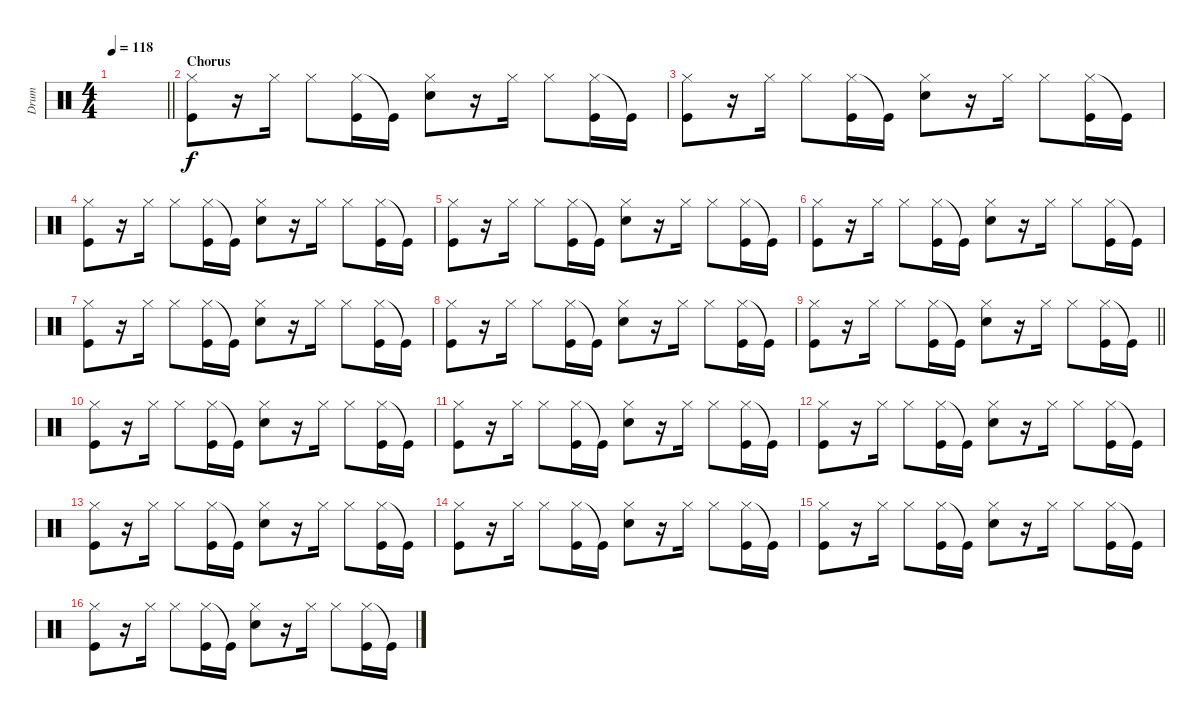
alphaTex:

\track ("Drum" "Drum") {instrument percussion}
\staff {score}
\articulation defaults
\ts (4 4)
\tempo 118
\clef neutral
\barLineRight lightlight
\ks c
|
\section ("" "Chorus")
("Hi-Hat (closed)" "Kick (hit)").8 r.16 "Hi-Hat (closed)".16 "Hi-Hat (closed)".8 ("Hi-Hat (closed)" "Kick (hit)").16 "Kick (hit)"{t}.16 ("Hi-Hat (closed)" "Hand Clap (hit)").8 r.16 "Hi-Hat (closed)".16 "Hi-Hat (closed)".8 ("Hi-Hat (closed)" "Kick (hit)").16 "Kick (hit)"{t}.16 |
("Kick (hit)" "Hi-Hat (closed)").8 r.16 "Hi-Hat (closed)".16 "Hi-Hat (closed)".8 ("Hi-Hat (closed)" "Kick (hit)").16 "Kick (hit)"{t}.16 ("Hi-Hat (closed)" "Hand Clap (hit)").8 r.16 "Hi-Hat (closed)".16 "Hi-Hat (closed)".8 ("Hi-Hat (closed)" "Kick (hit)").16 "Kick (hit)"{t}.16 |
("Hi-Hat (closed)" "Kick (hit)").8 r.16 "Hi-Hat (closed)".16 "Hi-Hat (closed)".8 ("Hi-Hat (closed)" "Kick (hit)").16 "Kick (hit)"{t}.16 ("Hi-Hat (closed)" "Hand Clap (hit)").8 r.16 "Hi-Hat (closed)".16 "Hi-Hat (closed)".8 ("Hi-Hat (closed)" "Kick (hit)").16 "Kick (hit)"{t}.16 |
("Kick (hit)" "Hi-Hat (closed)").8 r.16 "Hi-Hat (closed)".16 "Hi-Hat (closed)".8 ("Hi-Hat (closed)" "Kick (hit)").16 "Kick (hit)"{t}.16 ("Hi-Hat (closed)" "Hand Clap (hit)").8 r.16 "Hi-Hat (closed)".16 "Hi-Hat (closed)".8 ("Hi-Hat (closed)" "Kick (hit)").16 "Kick (hit)"{t}.16 |
("Hi-Hat (closed)" "Kick (hit)").8 r.16 "Hi-Hat (closed)".16 "Hi-Hat (closed)".8 ("Hi-Hat (closed)" "Kick (hit)").16 "Kick (hit)"{t}.16 ("Hi-Hat (closed)" "Hand Clap (hit)").8 r.16 "Hi-Hat (closed)".16 "Hi-Hat (closed)".8 ("Hi-Hat (closed)" "Kick (hit)").16 "Kick (hit)"{t}.16 |
("Kick (hit)" "Hi-Hat (closed)").8 r.16 "Hi-Hat (closed)".16 "Hi-Hat (closed)".8 ("Hi-Hat (closed)" "Kick (hit)").16 "Kick (hit)"{t}.16 ("Hi-Hat (closed)" "Hand Clap (hit)").8 r.16 "Hi-Hat (closed)".16 "Hi-Hat (closed)".8 ("Hi-Hat (closed)" "Kick (hit)").16 "Kick (hit)"{t}.16 |
("Hi-Hat (closed)" "Kick (hit)").8 r.16 "Hi-Hat (closed)".16 "Hi-Hat (closed)".8 ("Hi-Hat (closed)" "Kick (hit)").16 "Kick (hit)"{t}.16 ("Hi-Hat (closed)" "Hand Clap (hit)").8 r.16 "Hi-Hat (closed)".16 "Hi-Hat (closed)".8 ("Hi-Hat (closed)" "Kick (hit)").16 "Kick (hit)"{t}.16 |
\barLineRight lightlight
("Kick (hit)" "Hi-Hat (closed)").8 r.16 "Hi-Hat (closed)".16 "Hi-Hat (closed)".8 ("Hi-Hat (closed)" "Kick (hit)").16 "Kick (hit)"{t}.16 ("Hi-Hat (closed)" "Hand Clap (hit)").8 r.16 "Hi-Hat (closed)".16 "Hi-Hat (closed)".8 ("Hi-Hat (closed)" "Kick (hit)").16 "Kick (hit)"{t}.16 |
("Hi-Hat (closed)" "Kick (hit)").8 r.16 "Hi-Hat (closed)".16 "Hi-Hat (closed)".8 ("Hi-Hat (closed)" "Kick (hit)").16 "Kick (hit)"{t}.16 ("Hi-Hat (closed)" "Hand Clap (hit)").8 r.16 "Hi-Hat (closed)".16 "Hi-Hat (closed)".8 ("Hi-Hat (closed)" "Kick (hit)").16 "Kick (hit)"{t}.16 |
("Kick (hit)" "Hi-Hat (closed)").8 r.16 "Hi-Hat (closed)".16 "Hi-Hat (closed)".8 ("Hi-Hat (closed)" "Kick (hit)").16 "Kick (hit)"{t}.16 ("Hi-Hat (closed)" "Hand Clap (hit)").8 r.16 "Hi-Hat (closed)".16 "Hi-Hat (closed)".8 ("Hi-Hat (closed)" "Kick (hit)").16 "Kick (hit)"{t}.16 |
("Hi-Hat (closed)" "Kick (hit)").8 r.16 "Hi-Hat (closed)".16 "Hi-Hat (closed)".8 ("Hi-Hat (closed)" "Kick (hit)").16 "Kick (hit)"{t}.16 ("Hi-Hat (closed)" "Hand Clap (hit)").8 r.16 "Hi-Hat (closed)".16 "Hi-Hat (closed)".8 ("Hi-Hat (closed)" "Kick (hit)").16 "Kick (hit)"{t}.16 |
("Kick (hit)" "Hi-Hat (closed)").8 r.16 "Hi-Hat (closed)".16 "Hi-Hat (closed)".8 ("Hi-Hat (closed)" "Kick (hit)").16 "Kick (hit)"{t}.16 ("Hi-Hat (closed)" "Hand Clap (hit)").8 r.16 "Hi-Hat (closed)".16 "Hi-Hat (closed)".8 ("Hi-Hat (closed)" "Kick (hit)").16 "Kick (hit)"{t}.16 |
("Hi-Hat (closed)" "Kick (hit)").8 r.16 "Hi-Hat (closed)".16 "Hi-Hat (closed)".8 ("Hi-Hat (closed)" "Kick (hit)").16 "Kick (hit)"{t}.16 ("Hi-Hat (closed)" "Hand Clap (hit)").8 r.16 "Hi-Hat (closed)".16 "Hi-Hat (closed)".8 ("Hi-Hat (closed)" "Kick (hit)").16 "Kick (hit)"{t}.16 |
("Kick (hit)" "Hi-Hat (closed)").8 r.16 "Hi-Hat (closed)".16 "Hi-Hat (closed)".8 ("Hi-Hat (closed)" "Kick (hit)").16 "Kick (hit)"{t}.16 ("Hi-Hat (closed)" "Hand Clap (hit)").8 r.16 "Hi-Hat (closed)".16 "Hi-Hat (closed)".8 ("Hi-Hat (closed)" "Kick (hit)").16 "Kick (hit)"{t}.16 |
("Hi-Hat (closed)" "Kick (hit)").8 r.16 "Hi-Hat (closed)".16 "Hi-Hat (closed)".8 ("Hi-Hat (closed)" "Kick (hit)").16 "Kick (hit)"{t}.16 ("Hi-Hat (closed)" "Hand Clap (hit)").8 r.16 "Hi-Hat (closed)".16 "Hi-Hat (closed)".8 ("Hi-Hat (closed)" "Kick (hit)").16 "Kick (hit)"{t}.16
